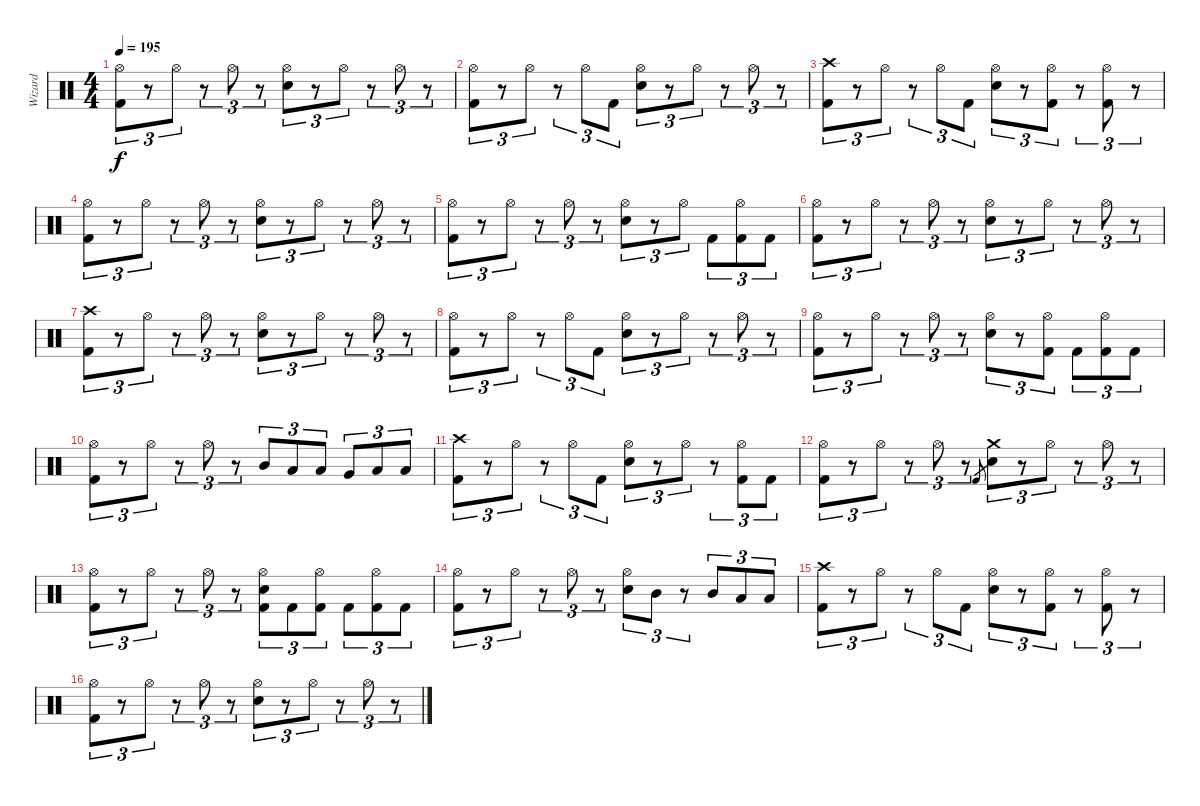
\track ("Wizard" "Wizard") {instrument percussion}
\staff {score}
\articulation defaults
\ts (4 4)
\tempo 195
\clef neutral
\ks c
("Hi-Hat (open)" "Kick (hit) 2").8{tu (3 2) dy f} r.8{tu (3 2)} "Hi-Hat (open)".8{tu (3 2)} r.8{tu (3 2)} "Hi-Hat (open)".8{tu (3 2)} r.8{tu (3 2)} ("Hi-Hat (open)" "Snare (hit) 2").8{tu (3 2)} r.8{tu (3 2)} "Hi-Hat (open)".8{tu (3 2)} r.8{tu (3 2)} "Hi-Hat (open)".8{tu (3 2)} r.8{tu (3 2)} |
("Hi-Hat (open)" "Kick (hit) 2").8{tu (3 2)} r.8{tu (3 2)} "Hi-Hat (open)".8{tu (3 2)} r.8{tu (3 2)} "Hi-Hat (open)".8{tu (3 2)} "Kick (hit) 2".8{tu (3 2)} ("Hi-Hat (open)" "Snare (hit) 2").8{tu (3 2)} r.8{tu (3 2)} "Hi-Hat (open)".8{tu (3 2)} r.8{tu (3 2)} "Hi-Hat (open)".8{tu (3 2)} r.8{tu (3 2)} |
("Crash high (hit)" "Kick (hit) 2").8{tu (3 2)} r.8{tu (3 2)} "Hi-Hat (open)".8{tu (3 2)} r.8{tu (3 2)} "Hi-Hat (open)".8{tu (3 2)} "Kick (hit) 2".8{tu (3 2)} ("Hi-Hat (open)" "Snare (hit) 2").8{tu (3 2)} r.8{tu (3 2)} ("Hi-Hat (open)" "Kick (hit) 2").8{tu (3 2)} r.8{tu (3 2)} ("Hi-Hat (open)" "Kick (hit) 2").8{tu (3 2)} r.8{tu (3 2)} |
("Hi-Hat (open)" "Kick (hit) 2").8{tu (3 2)} r.8{tu (3 2)} "Hi-Hat (open)".8{tu (3 2)} r.8{tu (3 2)} "Hi-Hat (open)".8{tu (3 2)} r.8{tu (3 2)} ("Hi-Hat (open)" "Snare (hit) 2").8{tu (3 2)} r.8{tu (3 2)} "Hi-Hat (open)".8{tu (3 2)} r.8{tu (3 2)} "Hi-Hat (open)".8{tu (3 2)} r.8{tu (3 2)} |
("Hi-Hat (open)" "Kick (hit) 2").8{tu (3 2)} r.8{tu (3 2)} "Hi-Hat (open)".8{tu (3 2)} r.8{tu (3 2)} "Hi-Hat (open)".8{tu (3 2)} r.8{tu (3 2)} ("Hi-Hat (open)" "Snare (hit) 2").8{tu (3 2)} r.8{tu (3 2)} "Hi-Hat (open)".8{tu (3 2)} "Kick (hit) 2".8{tu (3 2)} ("Hi-Hat (open)" "Kick (hit) 2").8{tu (3 2)} "Kick (hit) 2".8{tu (3 2)} |
("Hi-Hat (open)" "Kick (hit) 2").8{tu (3 2)} r.8{tu (3 2)} "Hi-Hat (open)".8{tu (3 2)} r.8{tu (3 2)} "Hi-Hat (open)".8{tu (3 2)} r.8{tu (3 2)} ("Hi-Hat (open)" "Snare (hit) 2").8{tu (3 2)} r.8{tu (3 2)} "Hi-Hat (open)".8{tu (3 2)} r.8{tu (3 2)} "Hi-Hat (open)".8{tu (3 2)} r.8{tu (3 2)} |
("Crash high (hit)" "Kick (hit) 2").8{tu (3 2)} r.8{tu (3 2)} "Hi-Hat (open)".8{tu (3 2)} r.8{tu (3 2)} "Hi-Hat (open)".8{tu (3 2)} r.8{tu (3 2)} ("Hi-Hat (open)" "Snare (hit) 2").8{tu (3 2)} r.8{tu (3 2)} "Hi-Hat (open)".8{tu (3 2)} r.8{tu (3 2)} "Hi-Hat (open)".8{tu (3 2)} r.8{tu (3 2)} |
("Hi-Hat (open)" "Kick (hit) 2").8{tu (3 2)} r.8{tu (3 2)} "Hi-Hat (open)".8{tu (3 2)} r.8{tu (3 2)} "Hi-Hat (open)".8{tu (3 2)} "Kick (hit) 2".8{tu (3 2)} ("Hi-Hat (open)" "Snare (hit) 2").8{tu (3 2)} r.8{tu (3 2)} "Hi-Hat (open)".8{tu (3 2)} r.8{tu (3 2)} "Hi-Hat (open)".8{tu (3 2)} r.8{tu (3 2)} |
("Hi-Hat (open)" "Kick (hit) 2").8{tu (3 2)} r.8{tu (3 2)} "Hi-Hat (open)".8{tu (3 2)} r.8{tu (3 2)} "Hi-Hat (open)".8{tu (3 2)} r.8{tu (3 2)} ("Hi-Hat (open)" "Snare (hit) 2").8{tu (3 2)} r.8{tu (3 2)} ("Hi-Hat (open)" "Kick (hit) 2").8{tu (3 2)} "Kick (hit) 2".8{tu (3 2)} ("Hi-Hat (open)" "Kick (hit) 2").8{tu (3 2)} "Kick (hit) 2".8{tu (3 2)} |
("Hi-Hat (open)" "Kick (hit) 2").8{tu (3 2)} r.8{tu (3 2)} "Hi-Hat (open)".8{tu (3 2)} r.8{tu (3 2)} "Hi-Hat (open)".8{tu (3 2)} r.8{tu (3 2)} "Mid Tom (hit)".8{tu (3 2)} "Low Tom (hit)".8{tu (3 2)} "Low Tom (hit)".8{tu (3 2)} "Very Low Tom (hit)".8{tu (3 2)} "Low Tom (hit)".8{tu (3 2)} "Low Tom (hit)".8{tu (3 2)} |
("Crash high (hit)" "Kick (hit) 2").8{tu (3 2)} r.8{tu (3 2)} "Hi-Hat (open)".8{tu (3 2)} r.8{tu (3 2)} "Hi-Hat (open)".8{tu (3 2)} "Kick (hit) 2".8{tu (3 2)} ("Hi-Hat (open)" "Snare (hit) 2").8{tu (3 2)} r.8{tu (3 2)} "Hi-Hat (open)".8{tu (3 2)} r.8{tu (3 2)} ("Hi-Hat (open)" "Kick (hit) 2").8{tu (3 2)} "Kick (hit) 2".8{tu (3 2)} |
("Hi-Hat (open)" "Kick (hit) 2").8{tu (3 2)} r.8{tu (3 2)} "Hi-Hat (open)".8{tu (3 2)} r.8{tu (3 2)} "Hi-Hat (open)".8{tu (3 2)} r.8{tu (3 2)} "Kick (hit) 2".8{gr} ("Crash medium (hit)" "Snare (hit) 2").8{tu (3 2)} r.8{tu (3 2)} "Hi-Hat (open)".8{tu (3 2)} r.8{tu (3 2)} "Hi-Hat (open)".8{tu (3 2)} r.8{tu (3 2)} |
("Hi-Hat (open)" "Kick (hit) 2").8{tu (3 2)} r.8{tu (3 2)} "Hi-Hat (open)".8{tu (3 2)} r.8{tu (3 2)} "Hi-Hat (open)".8{tu (3 2)} r.8{tu (3 2)} ("Hi-Hat (open)" "Snare (hit) 2" "Kick (hit) 2").8{tu (3 2)} "Kick (hit) 2".8{tu (3 2)} ("Hi-Hat (open)" "Kick (hit) 2").8{tu (3 2)} "Kick (hit) 2".8{tu (3 2)} ("Hi-Hat (open)" "Kick (hit) 2").8{tu (3 2)} "Kick (hit) 2".8{tu (3 2)} |
("Hi-Hat (open)" "Kick (hit) 2").8{tu (3 2)} r.8{tu (3 2)} "Hi-Hat (open)".8{tu (3 2)} r.8{tu (3 2)} "Hi-Hat (open)".8{tu (3 2)} r.8{tu (3 2)} ("Hi-Hat (open)" "Snare (hit) 2").8{tu (3 2)} "Mid Tom (hit)".8{tu (3 2)} r.8{tu (3 2)} "Mid Tom (hit)".8{tu (3 2)} "Low Tom (hit)".8{tu (3 2)} "Low Tom (hit)".8{tu (3 2)} |
("Crash high (hit)" "Kick (hit) 2").8{tu (3 2)} r.8{tu (3 2)} "Hi-Hat (open)".8{tu (3 2)} r.8{tu (3 2)} "Hi-Hat (open)".8{tu (3 2)} "Kick (hit) 2".8{tu (3 2)} ("Hi-Hat (open)" "Snare (hit) 2").8{tu (3 2)} r.8{tu (3 2)} ("Hi-Hat (open)" "Kick (hit) 2").8{tu (3 2)} r.8{tu (3 2)} ("Hi-Hat (open)" "Kick (hit) 2").8{tu (3 2)} r.8{tu (3 2)} |
("Hi-Hat (open)" "Kick (hit) 2").8{tu (3 2)} r.8{tu (3 2)} "Hi-Hat (open)".8{tu (3 2)} r.8{tu (3 2)} "Hi-Hat (open)".8{tu (3 2)} r.8{tu (3 2)} ("Hi-Hat (open)" "Snare (hit) 2").8{tu (3 2)} r.8{tu (3 2)} "Hi-Hat (open)".8{tu (3 2)} r.8{tu (3 2)} "Hi-Hat (open)".8{tu (3 2)} r.8{tu (3 2)}
